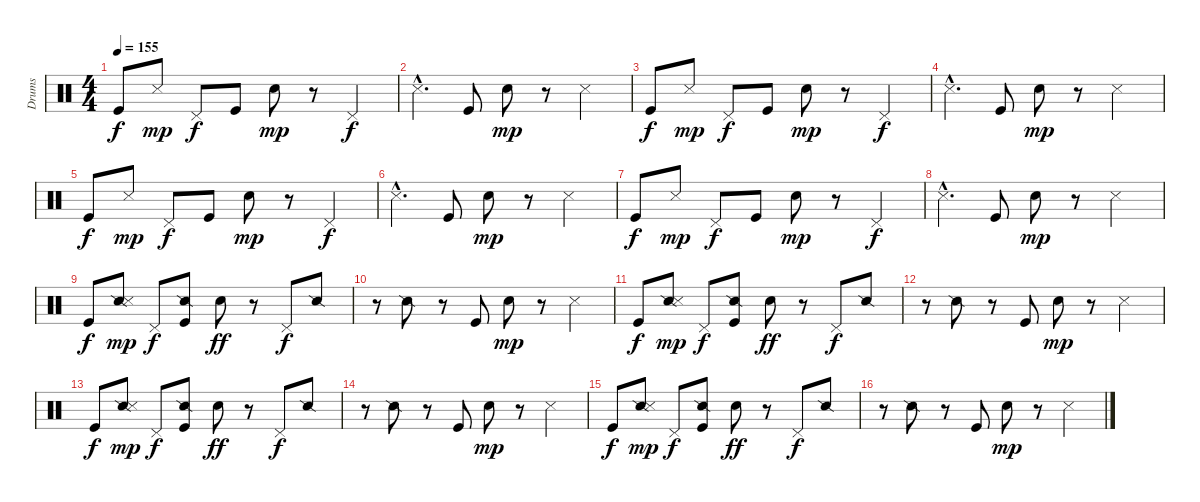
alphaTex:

\track ("Drums" "Drums") {instrument percussion}
\staff {score}
\articulation defaults
\ts (4 4)
\tempo 155
\clef neutral
\ks c "Kick (hit)".8{dy f} "Snare (side stick) 3".8{dy mp} "Pedal Hi-Hat (hit)".8{dy f} "Kick (hit)".8 "Electric Snare (hit)".8{dy mp}
r.8 "Pedal Hi-Hat (hit)".4{dy f} |
"Snare (side stick) 3"{hac}.4{d} "Kick (hit)".8 "Electric Snare (hit)".8{dy mp} r.8 "Snare (side stick) 3".4 |
"Kick (hit)".8{dy f} "Snare (side stick) 3".8{dy mp} "Pedal Hi-Hat (hit)".8{dy f} "Kick (hit)".8 "Electric Snare (hit)".8{dy mp} r.8 "Pedal Hi-Hat (hit)".4{dy f} |
"Snare (side stick) 3"{hac}.4{d} "Kick (hit)".8 "Electric Snare (hit)".8{dy mp} r.8 "Snare (side stick) 3".4 |
"Kick (hit)".8{dy f} "Snare (side stick) 3".8{dy mp} "Pedal Hi-Hat (hit)".8{dy f} "Kick (hit)".8 "Electric Snare (hit)".8{dy mp} r.8 "Pedal Hi-Hat (hit)".4{dy f} |
"Snare (side stick) 3"{hac}.4{d} "Kick (hit)".8 "Electric Snare (hit)".8{dy mp} r.8 "Snare (side stick) 3".4 |
"Kick (hit)".8{dy f} "Snare (side stick) 3".8{dy mp} "Pedal Hi-Hat (hit)".8{dy f} "Kick (hit)".8 "Electric Snare (hit)".8{dy mp} r.8 "Pedal Hi-Hat (hit)".4{dy f} |
"Snare (side stick) 3"{hac}.4{d} "Kick (hit)".8 "Electric Snare (hit)".8{dy mp} r.8 "Snare (side stick) 3".4 |
"Kick (hit)".8{dy f} ("Snare (side stick) 2" "Snare (side stick) 3").8{dy mp} "Pedal Hi-Hat (hit)".8{dy f} ("Snare (side stick) 2" "Kick (hit)").8 "Electric Snare (hit)".8{dy ff} r.8 "Pedal Hi-Hat (hit)".8{dy f} "Snare (side stick) 2".8 |
r.8 "Snare (side stick) 2".8 r.8 "Kick (hit)".8 "Electric Snare (hit)".8{dy mp} r.8 "Snare (side stick) 3".4 |
"Kick (hit)".8{dy f} ("Snare (side stick) 2" "Snare (side stick) 3").8{dy mp} "Pedal Hi-Hat (hit)".8{dy f} ("Snare (side stick) 2" "Kick (hit)").8 "Electric Snare (hit)".8{dy ff} r.8 "Pedal Hi-Hat (hit)".8{dy f} "Snare (side stick) 2".8 |
r.8 "Snare (side stick) 2".8 r.8 "Kick (hit)".8 "Electric Snare (hit)".8{dy mp} r.8 "Snare (side stick) 3".4 |
"Kick (hit)".8{dy f} ("Snare (side stick) 2" "Snare (side stick) 3").8{dy mp} "Pedal Hi-Hat (hit)".8{dy f} ("Snare (side stick) 2" "Kick (hit)").8 "Electric Snare (hit)".8{dy ff} r.8 "Pedal Hi-Hat (hit)".8{dy f} "Snare (side stick) 2".8 |
r.8 "Snare (side stick) 2".8 r.8 "Kick (hit)".8 "Electric Snare (hit)".8{dy mp} r.8 "Snare (side stick) 3".4 |
"Kick (hit)".8{dy f} ("Snare (side stick) 2" "Snare (side stick) 3").8{dy mp} "Pedal Hi-Hat (hit)".8{dy f} ("Snare (side stick) 2" "Kick (hit)").8 "Electric Snare (hit)".8{dy ff} r.8 "Pedal Hi-Hat (hit)".8{dy f} "Snare (side stick) 2".8 |
r.8 "Snare (side stick) 2".8 r.8 "Kick (hit)".8 "Electric Snare (hit)".8{dy mp} r.8 "Snare (side stick) 3".4
